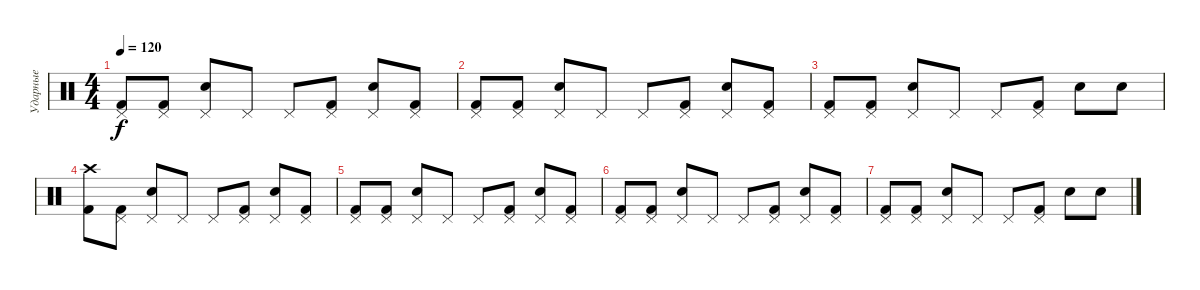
\track ("Ударные" "Ударные") {instrument percussion}
\staff {score}
\articulation defaults
\ts (4 4)
\tempo 120
\clef neutral
\ks c
("Pedal Hi-Hat (hit)" "Kick (hit) 2").8{dy f} ("Pedal Hi-Hat (hit)" "Kick (hit) 2").8 ("Pedal Hi-Hat (hit)" "Snare (hit) 2").8 "Pedal Hi-Hat (hit)".8 "Pedal Hi-Hat (hit)".8 ("Pedal Hi-Hat (hit)" "Kick (hit) 2").8 ("Pedal Hi-Hat (hit)" "Snare (hit) 2").8 ("Pedal Hi-Hat (hit)" "Kick (hit) 2").8 |
("Pedal Hi-Hat (hit)" "Kick (hit) 2").8 ("Pedal Hi-Hat (hit)" "Kick (hit) 2").8 ("Pedal Hi-Hat (hit)" "Snare (hit) 2").8 "Pedal Hi-Hat (hit)".8 "Pedal Hi-Hat (hit)".8 ("Pedal Hi-Hat (hit)" "Kick (hit) 2").8 ("Pedal Hi-Hat (hit)" "Snare (hit) 2").8 ("Pedal Hi-Hat (hit)" "Kick (hit) 2").8 |
("Pedal Hi-Hat (hit)" "Kick (hit) 2").8 ("Pedal Hi-Hat (hit)" "Kick (hit) 2").8 ("Pedal Hi-Hat (hit)" "Snare (hit) 2").8 "Pedal Hi-Hat (hit)".8 "Pedal Hi-Hat (hit)".8 ("Pedal Hi-Hat (hit)" "Kick (hit) 2").8 "Snare (hit) 2".8 "Snare (hit) 2".8 |
("Crash high (hit)" "Kick (hit) 2").8 ("Pedal Hi-Hat (hit)" "Kick (hit) 2").8 ("Pedal Hi-Hat (hit)" "Snare (hit) 2").8 "Pedal Hi-Hat (hit)".8 "Pedal Hi-Hat (hit)".8 ("Pedal Hi-Hat (hit)" "Kick (hit) 2").8 ("Pedal Hi-Hat (hit)" "Snare (hit) 2").8 ("Pedal Hi-Hat (hit)" "Kick (hit) 2").8 |
("Pedal Hi-Hat (hit)" "Kick (hit) 2").8 ("Pedal Hi-Hat (hit)" "Kick (hit) 2").8 ("Pedal Hi-Hat (hit)" "Snare (hit) 2").8 "Pedal Hi-Hat (hit)".8 "Pedal Hi-Hat (hit)".8 ("Pedal Hi-Hat (hit)" "Kick (hit) 2").8 ("Pedal Hi-Hat (hit)" "Snare (hit) 2").8 ("Pedal Hi-Hat (hit)" "Kick (hit) 2").8 |
("Pedal Hi-Hat (hit)" "Kick (hit) 2").8 ("Pedal Hi-Hat (hit)" "Kick (hit) 2").8 ("Pedal Hi-Hat (hit)" "Snare (hit) 2").8 "Pedal Hi-Hat (hit)".8 "Pedal Hi-Hat (hit)".8 ("Pedal Hi-Hat (hit)" "Kick (hit) 2").8 ("Pedal Hi-Hat (hit)" "Snare (hit) 2").8 ("Pedal Hi-Hat (hit)" "Kick (hit) 2").8 |
("Pedal Hi-Hat (hit)" "Kick (hit) 2").8 ("Pedal Hi-Hat (hit)" "Kick (hit) 2").8 ("Pedal Hi-Hat (hit)" "Snare (hit) 2").8 "Pedal Hi-Hat (hit)".8 "Pedal Hi-Hat (hit)".8 ("Pedal Hi-Hat (hit)" "Kick (hit) 2").8 "Snare (hit) 2".8 "Snare (hit) 2".8
